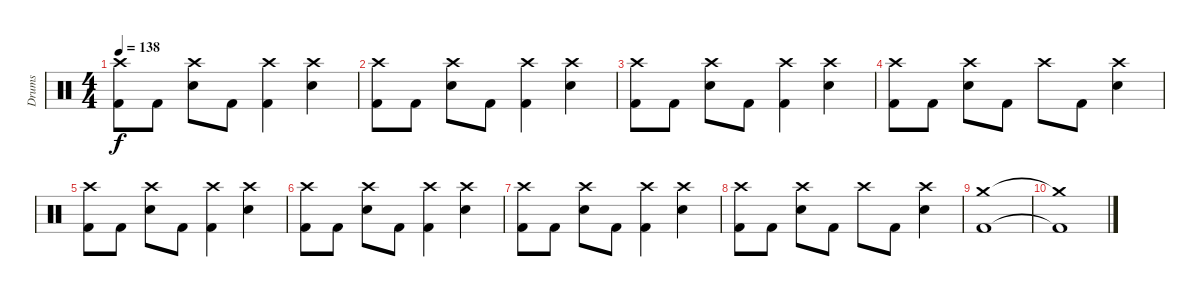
\track ("Drums" "Drums") {instrument percussion}
\staff {score}
\articulation defaults
\ts (4 4)
\tempo 138
\clef neutral
\ks c
("Crash high (hit)" "Kick (hit) 2").8{dy f} "Kick (hit) 2".8 ("Crash high (hit)" "Electric Snare (hit)").8 "Kick (hit) 2".8 ("Crash high (hit)" "Kick (hit) 2").4 ("Crash high (hit)" "Electric Snare (hit)").4 |
("Crash high (hit)" "Kick (hit) 2").8 "Kick (hit) 2".8 ("Crash high (hit)" "Electric Snare (hit)").8 "Kick (hit) 2".8 ("Crash high (hit)" "Kick (hit) 2").4 ("Crash high (hit)" "Electric Snare (hit)").4 |
("Crash high (hit)" "Kick (hit) 2").8 "Kick (hit) 2".8 ("Crash high (hit)" "Electric Snare (hit)").8 "Kick (hit) 2".8 ("Crash high (hit)" "Kick (hit) 2").4 ("Crash high (hit)" "Electric Snare (hit)").4 |
("Crash high (hit)" "Kick (hit) 2").8 "Kick (hit) 2".8 ("Crash high (hit)" "Electric Snare (hit)").8 "Kick (hit) 2".8 "Crash high (hit)".8 "Kick (hit) 2".8 ("Crash high (hit)" "Electric Snare (hit)").4 |
("Crash high (hit)" "Kick (hit) 2").8 "Kick (hit) 2".8 ("Crash high (hit)" "Electric Snare (hit)").8 "Kick (hit) 2".8 ("Crash high (hit)" "Kick (hit) 2").4 ("Crash high (hit)" "Electric Snare (hit)").4 |
("Crash high (hit)" "Kick (hit) 2").8 "Kick (hit) 2".8 ("Crash high (hit)" "Electric Snare (hit)").8 "Kick (hit) 2".8 ("Crash high (hit)" "Kick (hit) 2").4 ("Crash high (hit)" "Electric Snare (hit)").4 |
("Crash high (hit)" "Kick (hit) 2").8 "Kick (hit) 2".8 ("Crash high (hit)" "Electric Snare (hit)").8 "Kick (hit) 2".8 ("Crash high (hit)" "Kick (hit) 2").4 ("Crash high (hit)" "Electric Snare (hit)").4 |
("Crash high (hit)" "Kick (hit) 2").8 "Kick (hit) 2".8 ("Crash high (hit)" "Electric Snare (hit)").8 "Kick (hit) 2".8 "Crash high (hit)".8 "Kick (hit) 2".8 ("Crash high (hit)" "Electric Snare (hit)").4 |
("Crash medium (hit)" "Kick (hit) 2").1 |
("Crash medium (hit)"{t} "Kick (hit) 2"{t}).1
